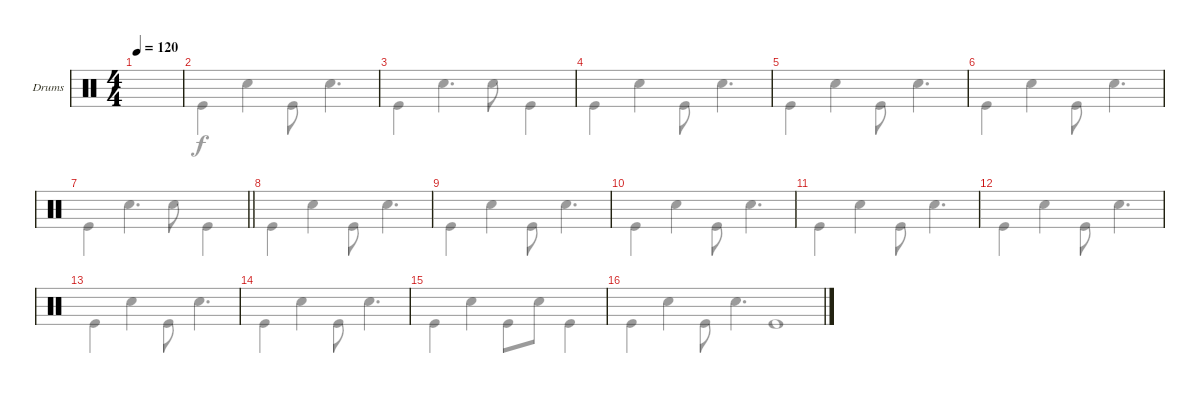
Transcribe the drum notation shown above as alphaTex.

\defaultSystemsLayout 4
\bracketExtendMode groupsimilarinstruments
\firstSystemTrackNameOrientation horizontal
\otherSystemsTrackNameOrientation horizontal
\track ("Drums" "Drums") {instrument percussion}
\staff {score}
\articulation defaults
\voice
\ts (4 4)
\scale
0.519871
\tempo 120
\accidentals auto
\clef neutral
\ottava regular
\simile none
\ks aminor
|
\scale
0.480122 |
\scale
0.560995 |
\scale
0.43891 |
\scale
0.514158 |
\scale
0.485821 |
\scale
0.525584
\barLineRight lightlight
|
\scale
0.474423 |
\scale
0.51 |
\scale
0.490028 |
\scale
0.495714 |
\scale
0.504274 |
\scale
0.51 |
\scale
0.490028 |
\scale
0.495714 |
\scale
0.481481
\voice
\clef neutral
\ottava regular
\simile none
\ks aminor "Kick (hit)".4{dy f} "Snare (hit) 2".4 "Kick (hit)".8 "Snare (hit) 2".4{d}
|
"Kick (hit)".4 "Snare (hit) 2".4 "Kick (hit)".8 "Snare (hit) 2".4{d} |
"Kick (hit)".4 "Snare (hit) 2".4{d} "Snare (hit) 2".8 "Kick (hit)".4 |
"Kick (hit)".4 "Snare (hit) 2".4 "Kick (hit)".8 "Snare (hit) 2".4{d} |
"Kick (hit)".4 "Snare (hit) 2".4 "Kick (hit)".8 "Snare (hit) 2".4{d} |
"Kick (hit)".4 "Snare (hit) 2".4 "Kick (hit)".8 "Snare (hit) 2".4{d} |
\barLineRight lightlight "Kick (hit)".4 "Snare (hit) 2".4{d} "Snare (hit) 2".8 "Kick (hit)".4
|
"Kick (hit)".4 "Snare (hit) 2".4 "Kick (hit)".8 "Snare (hit) 2".4{d} |
"Kick (hit)".4 "Snare (hit) 2".4 "Kick (hit)".8 "Snare (hit) 2".4{d} |
"Kick (hit)".4 "Snare (hit) 2".4 "Kick (hit)".8 "Snare (hit) 2".4{d} |
"Kick (hit)".4 "Snare (hit) 2".4 "Kick (hit)".8 "Snare (hit) 2".4{d} |
"Kick (hit)".4 "Snare (hit) 2".4 "Kick (hit)".8 "Snare (hit) 2".4{d} |
"Kick (hit)".4 "Snare (hit) 2".4 "Kick (hit)".8 "Snare (hit) 2".4{d} |
"Kick (hit)".4 "Snare (hit) 2".4 "Kick (hit)".8 "Snare (hit) 2".4{d} |
"Kick (hit)".4 "Snare (hit) 2".4 "Kick (hit)".8 "Snare (hit) 2".8 "Kick (hit)".4 |
"Kick (hit)".1
